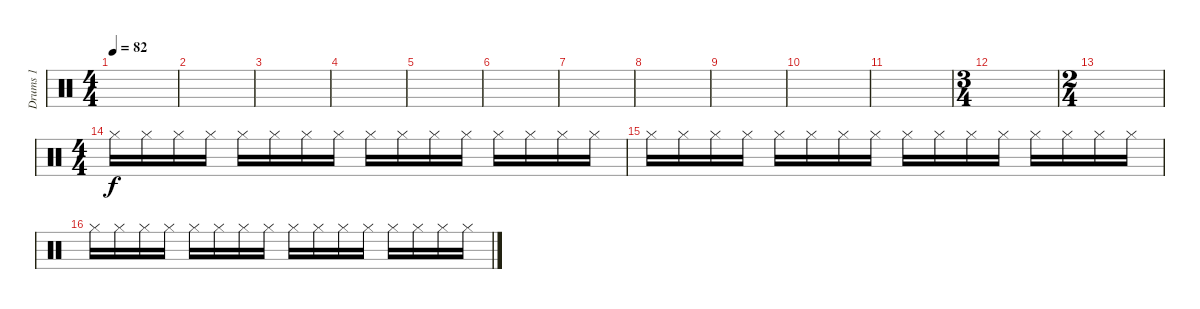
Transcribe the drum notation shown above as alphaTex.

\track ("Drums 1" "Drums 1") {instrument percussion}
\staff {score}
\articulation defaults
\ts (4 4)
\tempo 82
\clef neutral
\ks c
|
|
|
|
|
|
|
|
|
|
|
\ts (3 4)
|
\ts (2 4)
|
\ts (4 4)
"Hi-Hat (closed)".16 "Hi-Hat (closed)".16 "Hi-Hat (closed)".16 "Hi-Hat (closed)".16 "Hi-Hat (closed)".16 "Hi-Hat (closed)".16 "Hi-Hat (closed)".16 "Hi-Hat (closed)".16 "Hi-Hat (closed)".16 "Hi-Hat (closed)".16 "Hi-Hat (closed)".16 "Hi-Hat (closed)".16 "Hi-Hat (closed)".16 "Hi-Hat (closed)".16 "Hi-Hat (closed)".16 "Hi-Hat (closed)".16 |
"Hi-Hat (closed)".16 "Hi-Hat (closed)".16 "Hi-Hat (closed)".16 "Hi-Hat (closed)".16 "Hi-Hat (closed)".16 "Hi-Hat (closed)".16 "Hi-Hat (closed)".16 "Hi-Hat (closed)".16 "Hi-Hat (closed)".16 "Hi-Hat (closed)".16 "Hi-Hat (closed)".16 "Hi-Hat (closed)".16 "Hi-Hat (closed)".16 "Hi-Hat (closed)".16 "Hi-Hat (closed)".16 "Hi-Hat (closed)".16 |
"Hi-Hat (closed)".16 "Hi-Hat (closed)".16 "Hi-Hat (closed)".16 "Hi-Hat (closed)".16 "Hi-Hat (closed)".16 "Hi-Hat (closed)".16 "Hi-Hat (closed)".16 "Hi-Hat (closed)".16 "Hi-Hat (closed)".16 "Hi-Hat (closed)".16 "Hi-Hat (closed)".16 "Hi-Hat (closed)".16 "Hi-Hat (closed)".16 "Hi-Hat (closed)".16 "Hi-Hat (closed)".16 "Hi-Hat (closed)".16
